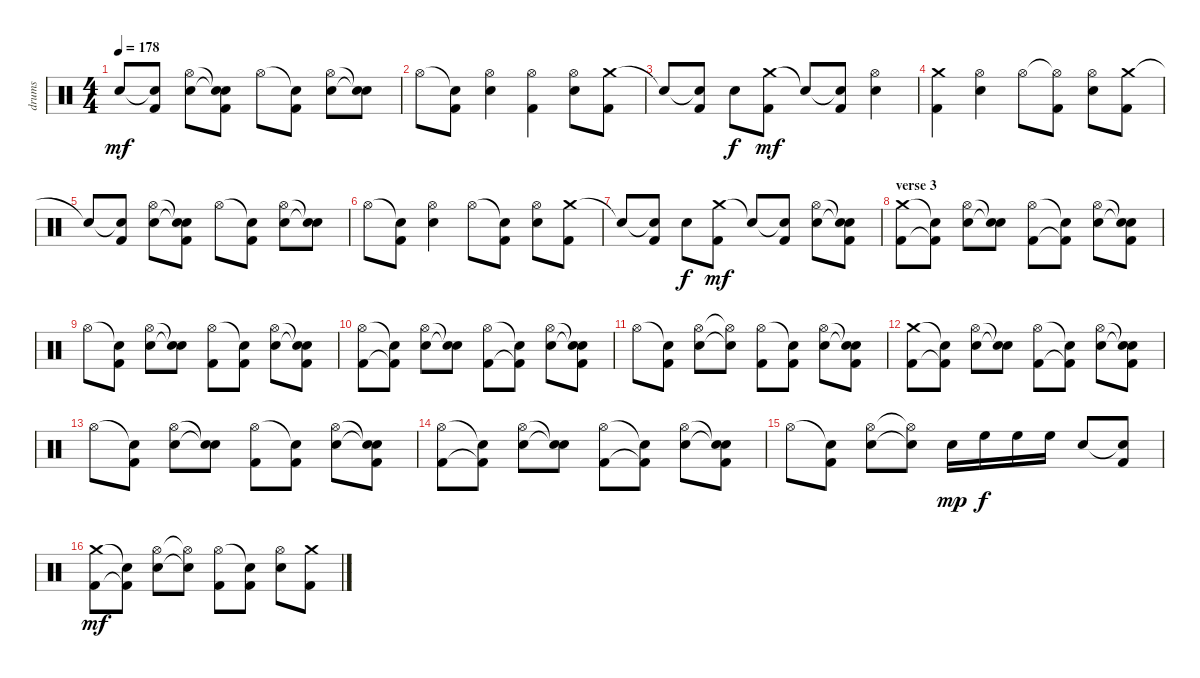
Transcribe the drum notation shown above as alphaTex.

\track ("drums" "drums") {instrument percussion}
\staff {score}
\articulation defaults
\ts (4 4)
\tempo 178
\clef neutral
\ks aminor "Snare (hit)"{t}.8{dy mf}
("Snare (hit)"{t} "Kick (hit) 2").8 ("Hi-Hat (open)" "Snare (hit) 2").8 ("Snare (hit)"{t} "Snare (hit)"{t} "Kick (hit) 2").8 "Hi-Hat (open)".8 ("Snare (hit)"{t} "Kick (hit) 2").8 ("Hi-Hat (open)" "Snare (hit) 2").8 ("Snare (hit)"{t} "Snare (hit)"{t}).8 |
"Hi-Hat (open)".8 ("Snare (hit)"{t} "Kick (hit) 2").8 ("Hi-Hat (open)" "Snare (hit) 2").4 ("Hi-Hat (open)" "Kick (hit) 2").4 ("Hi-Hat (open)" "Snare (hit) 2").8 ("Crash medium (hit)" "Kick (hit) 2").8 |
"Snare (hit)"{t}.8 ("Snare (hit)"{t} "Kick (hit) 2").8 "Snare (hit) 2".8{dy f} ("Crash medium (hit)" "Kick (hit) 2").8{dy mf} "Snare (hit)"{t}.8 ("Snare (hit)"{t} "Kick (hit) 2").8 ("Hi-Hat (open)" "Snare (hit) 2").4 |
("Crash medium (hit)" "Kick (hit) 2").4 ("Hi-Hat (open)" "Snare (hit) 2").4 "Hi-Hat (open)".8 ("Hi-Hat (open)"{t} "Kick (hit) 2").8 ("Hi-Hat (open)" "Snare (hit) 2").8 ("Crash medium (hit)" "Kick (hit) 2").8 |
"Snare (hit)"{t}.8 ("Snare (hit)"{t} "Kick (hit) 2").8 ("Hi-Hat (open)" "Snare (hit) 2").8 ("Snare (hit)"{t} "Snare (hit)"{t} "Kick (hit) 2").8 "Hi-Hat (open)".8 ("Snare (hit)"{t} "Kick (hit) 2").8 ("Hi-Hat (open)" "Snare (hit) 2").8 ("Snare (hit)"{t} "Snare (hit)"{t}).8 |
"Hi-Hat (open)".8 ("Snare (hit)"{t} "Kick (hit) 2").8 ("Hi-Hat (open)" "Snare (hit) 2").4 "Hi-Hat (open)".8 ("Snare (hit)"{t} "Kick (hit) 2").8 ("Hi-Hat (open)" "Snare (hit) 2").8 ("Crash medium (hit)" "Kick (hit) 2").8 |
"Snare (hit)"{t}.8 ("Snare (hit)"{t} "Kick (hit) 2").8 "Snare (hit) 2".8{dy f} ("Crash medium (hit)" "Kick (hit) 2").8{dy mf} "Snare (hit)"{t}.8 ("Snare (hit)"{t} "Kick (hit) 2").8 ("Hi-Hat (open)" "Snare (hit) 2").8 ("Snare (hit)"{t} "Snare (hit)"{t} "Kick (hit) 2").8 |
\section ("" "verse 3")
("Crash medium (hit)" "Kick (hit) 2").8 ("Snare (hit)"{t} "Kick (hit) 2"{t}).8 ("Hi-Hat (open)" "Snare (hit) 2").8 ("Snare (hit)"{t} "Snare (hit)"{t}).8 ("Hi-Hat (open)" "Kick (hit) 2").8 ("Snare (hit)"{t} "Kick (hit) 2"{t}).8 ("Hi-Hat (open)" "Snare (hit) 2").8 ("Snare (hit)"{t} "Snare (hit)"{t} "Kick (hit) 2").8 |
"Hi-Hat (open)".8 ("Snare (hit)"{t} "Kick (hit) 2").8 ("Hi-Hat (open)" "Snare (hit) 2").8 ("Snare (hit)"{t} "Snare (hit)"{t}).8 ("Hi-Hat (open)" "Kick (hit) 2").8 ("Snare (hit)"{t} "Kick (hit) 2").8 ("Hi-Hat (open)" "Snare (hit) 2").8 ("Snare (hit)"{t} "Snare (hit)"{t} "Kick (hit) 2").8 |
("Hi-Hat (open)" "Kick (hit) 2").8 ("Snare (hit)"{t} "Kick (hit) 2"{t}).8 ("Hi-Hat (open)" "Snare (hit) 2").8 ("Snare (hit)"{t} "Snare (hit)"{t}).8 ("Hi-Hat (open)" "Kick (hit) 2").8 ("Snare (hit)"{t} "Kick (hit) 2"{t}).8 ("Hi-Hat (open)" "Snare (hit) 2").8 ("Snare (hit)"{t} "Snare (hit)"{t} "Kick (hit) 2").8 |
"Hi-Hat (open)".8 ("Snare (hit)"{t} "Kick (hit) 2").8 ("Hi-Hat (open)" "Snare (hit) 2").8 ("Hi-Hat (open)"{t} "Snare (hit)"{t}).8 ("Hi-Hat (open)" "Kick (hit) 2").8 ("Snare (hit)"{t} "Kick (hit) 2").8 ("Hi-Hat (open)" "Snare (hit) 2").8 ("Snare (hit)"{t} "Snare (hit)"{t} "Kick (hit) 2").8 |
("Crash medium (hit)" "Kick (hit) 2").8 ("Snare (hit)"{t} "Kick (hit) 2"{t}).8 ("Hi-Hat (open)" "Snare (hit) 2").8 ("Snare (hit)"{t} "Snare (hit)"{t}).8 ("Hi-Hat (open)" "Kick (hit) 2").8 ("Snare (hit)"{t} "Kick (hit) 2"{t}).8 ("Hi-Hat (open)" "Snare (hit) 2").8 ("Snare (hit)"{t} "Snare (hit)"{t} "Kick (hit) 2").8 |
"Hi-Hat (open)".8 ("Snare (hit)"{t} "Kick (hit) 2").8 ("Hi-Hat (open)" "Snare (hit) 2").8 ("Snare (hit)"{t} "Snare (hit)"{t}).8 ("Hi-Hat (open)" "Kick (hit) 2").8 ("Snare (hit)"{t} "Kick (hit) 2").8 ("Hi-Hat (open)" "Snare (hit) 2").8 ("Snare (hit)"{t} "Snare (hit)"{t} "Kick (hit) 2").8 |
("Hi-Hat (open)" "Kick (hit) 2").8 ("Snare (hit)"{t} "Kick (hit) 2"{t}).8 ("Hi-Hat (open)" "Snare (hit) 2").8 ("Snare (hit)"{t} "Snare (hit)"{t}).8 ("Hi-Hat (open)" "Kick (hit) 2").8 ("Snare (hit)"{t} "Kick (hit) 2"{t}).8 ("Hi-Hat (open)" "Snare (hit) 2").8 ("Snare (hit)"{t} "Snare (hit)"{t} "Kick (hit) 2").8 |
"Hi-Hat (open)".8 ("Snare (hit)"{t} "Kick (hit) 2").8 ("Hi-Hat (open)" "Snare (hit) 2").8 ("Hi-Hat (open)"{t} "Snare (hit)"{t}).8 "Snare (hit) 2".16{dy mp} "High Floor Tom (hit)".16{dy f} "High Floor Tom (hit)".16 "High Floor Tom (hit)".16 "Snare (hit) 2".8 ("Snare (hit)"{t} "Kick (hit) 2").8 |
("Crash medium (hit)" "Kick (hit) 2").8{dy mf} ("Snare (hit)"{t} "Kick (hit) 2"{t}).8 ("Hi-Hat (open)" "Snare (hit) 2").8 ("Hi-Hat (open)"{t} "Snare (hit)"{t}).8 ("Hi-Hat (open)" "Kick (hit) 2").8 ("Snare (hit)"{t} "Kick (hit) 2").8 ("Hi-Hat (open)" "Snare (hit) 2").8 ("Crash medium (hit)" "Kick (hit) 2").8
